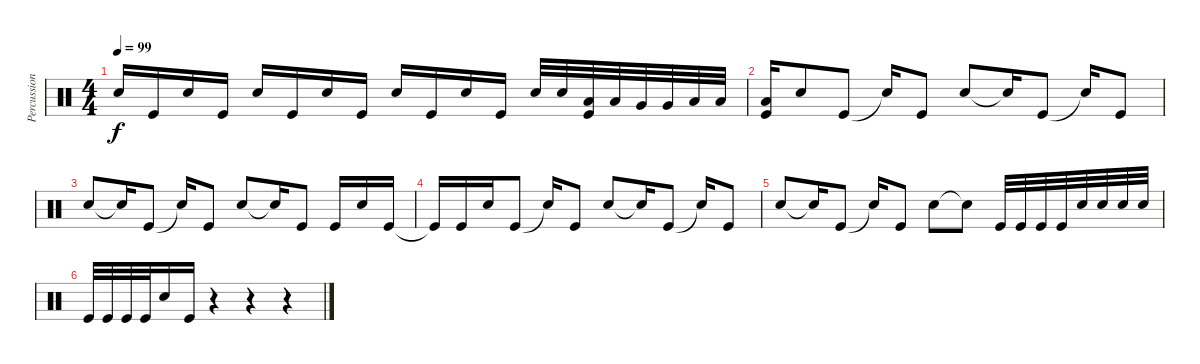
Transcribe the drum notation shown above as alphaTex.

\track ("Percussion" "Percussion") {instrument percussion}
\staff {score}
\articulation defaults
\ts (4 4)
\tempo 99
\clef neutral
\ks c "Electric Snare (hit)".16{dy f} "Kick (hit)".16 "Electric Snare (hit)".16 "Kick (hit)".16 "Electric Snare (hit)".16 "Kick (hit)".16 "Electric Snare (hit)".16 "Kick (hit)".16 "Electric Snare (hit)".16 "Kick (hit)".16 "Electric Snare (hit)".16 "Kick (hit)".16 "Electric Snare (hit)".32 "Electric Snare (hit)".32
("Low Tom (hit)" "Kick (hit)").32 "Low Tom (hit)".32 "Very Low Tom (hit)".32 "Very Low Tom (hit)".32 "Low Floor Tom (hit)".32 "Low Floor Tom (hit)".32 |
("Low Floor Tom (hit)" "Kick (hit)").16 "Electric Snare (hit)".8 "Kick (hit)".8 "Snare (hit)"{t}.16 "Kick (hit)".8 "Electric Snare (hit)".8 "Snare (hit)"{t}.16 "Kick (hit)".8 "Snare (hit)"{t}.16 "Kick (hit)".8 |
"Electric Snare (hit)".8 "Snare (hit)"{t}.16 "Kick (hit)".8 "Snare (hit)"{t}.16 "Kick (hit)".8 "Electric Snare (hit)".8 "Snare (hit)"{t}.16 "Kick (hit)".8 "Kick (hit)".16 "Electric Snare (hit)".16 "Kick (hit)".16 |
"Kick (hit)"{t}.16 "Kick (hit)".16 "Electric Snare (hit)".16 "Kick (hit)".8 "Snare (hit)"{t}.16 "Kick (hit)".8 "Electric Snare (hit)".8 "Snare (hit)"{t}.16 "Kick (hit)".8 "Snare (hit)"{t}.16 "Kick (hit)".8 |
"Electric Snare (hit)".8 "Snare (hit)"{t}.16 "Kick (hit)".8 "Snare (hit)"{t}.16 "Kick (hit)".8 "Electric Snare (hit)".8 "Snare (hit)"{t}.8 "Kick (hit)".32 "Kick (hit)".32 "Kick (hit)".32 "Kick (hit)".32 "Electric Snare (hit)".32 "Electric Snare (hit)".32 "Electric Snare (hit)".32 "Electric Snare (hit)".32 |
"Kick (hit)".32 "Kick (hit)".32 "Kick (hit)".32 "Kick (hit)".32 "Electric Snare (hit)".16 "Kick (hit)".16 r.4 r.4 r.4
